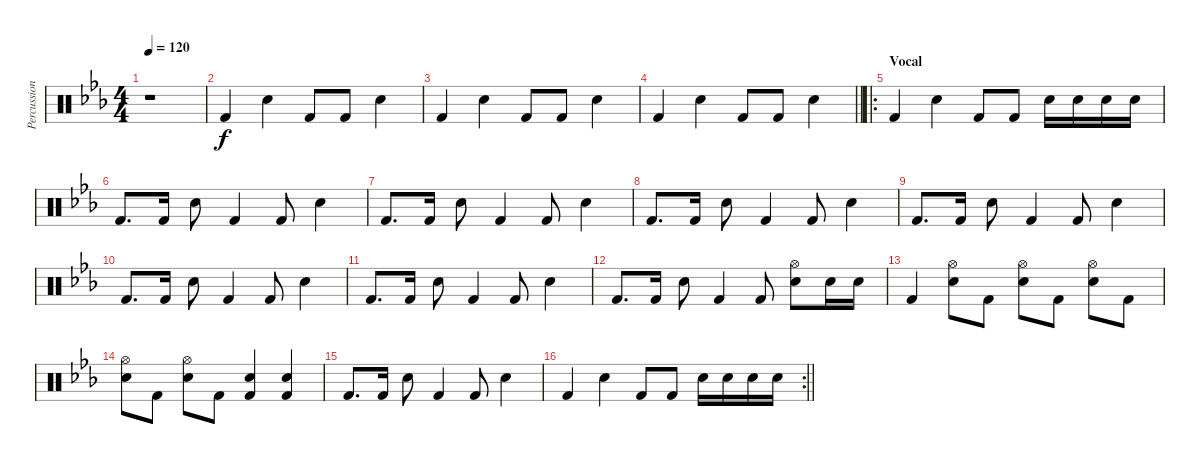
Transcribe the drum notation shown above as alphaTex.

\track ("Percussion" "Percussion") {instrument percussion}
\staff {score}
\articulation defaults
\ts (4 4)
\tempo 120
\clef neutral
\ks cminor
r.1{dy f} |
"Kick (hit) 2".4 "Snare (hit) 2".4 "Kick (hit) 2".8 "Kick (hit) 2".8 "Snare (hit) 2".4 |
"Kick (hit) 2".4 "Snare (hit) 2".4 "Kick (hit) 2".8 "Kick (hit) 2".8 "Snare (hit) 2".4 |
\barLineRight lightlight "Kick (hit) 2".4 "Snare (hit) 2".4 "Kick (hit) 2".8 "Kick (hit) 2".8 "Snare (hit) 2".4
|
\ro
\section ("" "Vocal")
"Kick (hit) 2".4 "Snare (hit) 2".4 "Kick (hit) 2".8 "Kick (hit) 2".8 "Snare (hit) 2".16 "Snare (hit) 2".16 "Snare (hit) 2".16 "Snare (hit) 2".16 |
"Kick (hit) 2".8{d} "Kick (hit) 2".16 "Snare (hit) 2".8 "Kick (hit) 2".4 "Kick (hit) 2".8 "Snare (hit) 2".4 |
"Kick (hit) 2".8{d} "Kick (hit) 2".16 "Snare (hit) 2".8 "Kick (hit) 2".4 "Kick (hit) 2".8 "Snare (hit) 2".4 |
"Kick (hit) 2".8{d} "Kick (hit) 2".16 "Snare (hit) 2".8 "Kick (hit) 2".4 "Kick (hit) 2".8 "Snare (hit) 2".4 |
"Kick (hit) 2".8{d} "Kick (hit) 2".16 "Snare (hit) 2".8 "Kick (hit) 2".4 "Kick (hit) 2".8 "Snare (hit) 2".4 |
"Kick (hit) 2".8{d} "Kick (hit) 2".16 "Snare (hit) 2".8 "Kick (hit) 2".4 "Kick (hit) 2".8 "Snare (hit) 2".4 |
"Kick (hit) 2".8{d} "Kick (hit) 2".16 "Snare (hit) 2".8 "Kick (hit) 2".4 "Kick (hit) 2".8 "Snare (hit) 2".4 |
"Kick (hit) 2".8{d} "Kick (hit) 2".16 "Snare (hit) 2".8 "Kick (hit) 2".4 "Kick (hit) 2".8 ("Snare (hit) 2" "Hi-Hat (open)").8 "Snare (hit) 2".16 "Snare (hit) 2".16 |
"Kick (hit) 2".4 ("Snare (hit) 2" "Hi-Hat (open)").8 "Kick (hit) 2".8 ("Snare (hit) 2" "Hi-Hat (open)").8 "Kick (hit) 2".8 ("Snare (hit) 2" "Hi-Hat (open)").8 "Kick (hit) 2".8 |
("Snare (hit) 2" "Hi-Hat (open)").8 "Kick (hit) 2".8 ("Snare (hit) 2" "Hi-Hat (open)").8 "Kick (hit) 2".8 ("Snare (hit) 2" "Kick (hit) 2").4 ("Snare (hit) 2" "Kick (hit) 2").4 |
"Kick (hit) 2".8{d} "Kick (hit) 2".16 "Snare (hit) 2".8 "Kick (hit) 2".4 "Kick (hit) 2".8 "Snare (hit) 2".4 |
\rc 2
\barLineRight lightlight "Kick (hit) 2".4 "Snare (hit) 2".4 "Kick (hit) 2".8 "Kick (hit) 2".8 "Snare (hit) 2".16 "Snare (hit) 2".16 "Snare (hit) 2".16 "Snare (hit) 2".16
